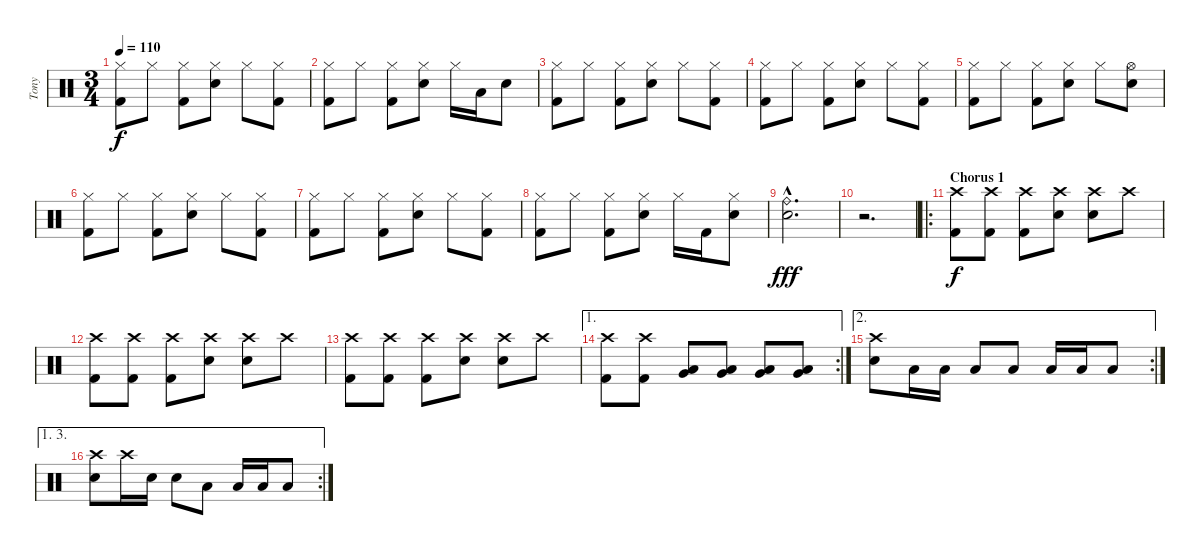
\track ("Tony" "Tony") {instrument percussion}
\staff {score}
\articulation defaults
\ts (3 4)
\tempo 110
\clef neutral
\ks c
("Kick (hit) 2" "Hi-Hat (closed)").8{dy f} "Hi-Hat (closed)".8 ("Kick (hit) 2" "Hi-Hat (closed)").8 ("Snare (hit) 2" "Hi-Hat (closed)").8 "Hi-Hat (closed)".8 ("Kick (hit) 2" "Hi-Hat (closed)").8 |
("Kick (hit) 2" "Hi-Hat (closed)").8 "Hi-Hat (closed)".8 ("Kick (hit) 2" "Hi-Hat (closed)").8 ("Snare (hit) 2" "Hi-Hat (closed)").8 "Hi-Hat (closed)".16 "Low Tom (hit)".16 "Snare (hit) 2".8 |
("Kick (hit) 2" "Hi-Hat (closed)").8 "Hi-Hat (closed)".8 ("Kick (hit) 2" "Hi-Hat (closed)").8 ("Snare (hit) 2" "Hi-Hat (closed)").8 "Hi-Hat (closed)".8 ("Kick (hit) 2" "Hi-Hat (closed)").8 |
("Kick (hit) 2" "Hi-Hat (closed)").8 "Hi-Hat (closed)".8 ("Kick (hit) 2" "Hi-Hat (closed)").8 ("Snare (hit) 2" "Hi-Hat (closed)").8 "Hi-Hat (closed)".8 ("Kick (hit) 2" "Hi-Hat (closed)").8 |
("Kick (hit) 2" "Hi-Hat (closed)").8 "Hi-Hat (closed)".8 ("Kick (hit) 2" "Hi-Hat (closed)").8 ("Snare (hit) 2" "Hi-Hat (closed)").8 "Hi-Hat (closed)".8 ("Snare (hit) 2" "Hi-Hat (open)").8 |
("Kick (hit) 2" "Hi-Hat (closed)").8 "Hi-Hat (closed)".8 ("Kick (hit) 2" "Hi-Hat (closed)").8 ("Snare (hit) 2" "Hi-Hat (closed)").8 "Hi-Hat (closed)".8 ("Kick (hit) 2" "Hi-Hat (closed)").8 |
("Kick (hit) 2" "Hi-Hat (closed)").8 "Hi-Hat (closed)".8 ("Kick (hit) 2" "Hi-Hat (closed)").8 ("Snare (hit) 2" "Hi-Hat (closed)").8 "Hi-Hat (closed)".8 ("Kick (hit) 2" "Hi-Hat (closed)").8 |
("Kick (hit) 2" "Hi-Hat (closed)").8 "Hi-Hat (closed)".8 ("Kick (hit) 2" "Hi-Hat (closed)").8 ("Snare (hit) 2" "Hi-Hat (closed)").8 "Hi-Hat (closed)".16 "Kick (hit) 2".16 ("Snare (hit) 2" "Hi-Hat (closed)").8 |
("Ride (bell)"{hac} "Snare (hit) 2"{hac}).2{d dy fff} |
r.2{d} |
\ro
\section ("" "Chorus 1")
("Kick (hit) 2" "Crash high (hit)").8{dy f} ("Kick (hit) 2" "Crash high (hit)").8 ("Kick (hit) 2" "Crash high (hit)").8 ("Crash high (hit)" "Snare (hit) 2").8 ("Crash high (hit)" "Snare (hit) 2").8 "Crash high (hit)".8 |
("Kick (hit) 2" "Crash high (hit)").8 ("Kick (hit) 2" "Crash high (hit)").8 ("Kick (hit) 2" "Crash high (hit)").8 ("Crash high (hit)" "Snare (hit) 2").8 ("Crash high (hit)" "Snare (hit) 2").8 "Crash high (hit)".8 |
("Kick (hit) 2" "Crash high (hit)").8 ("Kick (hit) 2" "Crash high (hit)").8 ("Kick (hit) 2" "Crash high (hit)").8 ("Crash high (hit)" "Snare (hit) 2").8 ("Crash high (hit)" "Snare (hit) 2").8 "Crash high (hit)".8 |
\ae 1
\rc 2
("Kick (hit) 2" "Crash high (hit)").8 ("Kick (hit) 2" "Crash high (hit)").8 ("Low Tom (hit)" "Very Low Tom (hit)").8 ("Low Tom (hit)" "Very Low Tom (hit)").8 ("Low Tom (hit)" "Very Low Tom (hit)").8 ("Low Tom (hit)" "Very Low Tom (hit)").8 |
\ae 2
\rc 2
("Crash high (hit)" "Snare (hit) 2").8 "Low Tom (hit)".16 "Low Tom (hit)".16 "Low Tom (hit)".8 "Low Tom (hit)".8 "Low Tom (hit)".16 "Low Tom (hit)".16 "Low Tom (hit)".8 |
\ae (1 3)
\rc 2
("Crash high (hit)" "Snare (hit) 2").8 "Crash high (hit)".16 "Snare (hit) 2".16 "Snare (hit) 2".8 "Low Tom (hit)".8 "Low Tom (hit)".16 "Low Tom (hit)".16 "Low Tom (hit)".8
